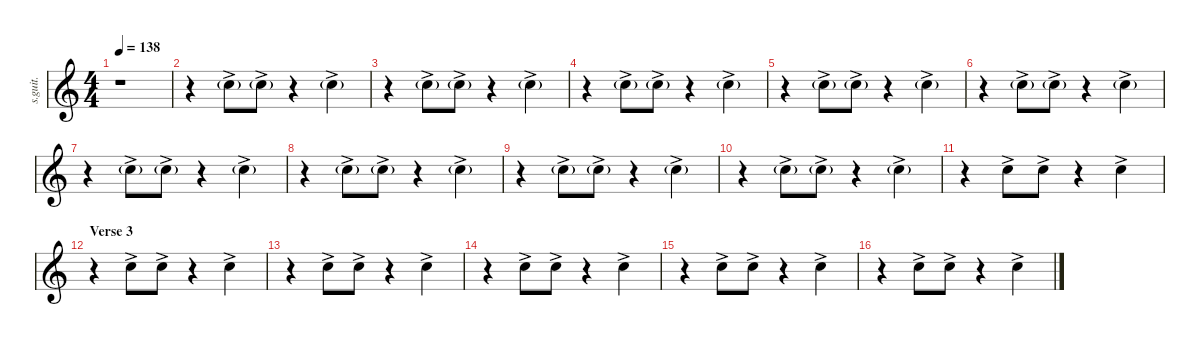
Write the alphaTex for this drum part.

\defaultSystemsLayout 4
\hideDynamics
\bracketExtendMode nobrackets
\track ("Hand Claps" "s.guit.") {instrument percussion}
\staff {score}
\articulation defaults
\ts (4 4)
\tempo 138
\clef g2
\ks c
r.1{dy fff} |
r.4 "Hand Clap (hit)"{g ac}.8 "Hand Clap (hit)"{g ac}.8 r.4 "Hand Clap (hit)"{g ac}.4 |
r.4 "Hand Clap (hit)"{g ac}.8 "Hand Clap (hit)"{g ac}.8 r.4 "Hand Clap (hit)"{g ac}.4 |
r.4 "Hand Clap (hit)"{g ac}.8 "Hand Clap (hit)"{g ac}.8 r.4 "Hand Clap (hit)"{g ac}.4 |
r.4 "Hand Clap (hit)"{g ac}.8 "Hand Clap (hit)"{g ac}.8 r.4 "Hand Clap (hit)"{g ac}.4 |
r.4 "Hand Clap (hit)"{g ac}.8 "Hand Clap (hit)"{g ac}.8 r.4 "Hand Clap (hit)"{g ac}.4 |
r.4 "Hand Clap (hit)"{g ac}.8 "Hand Clap (hit)"{g ac}.8 r.4 "Hand Clap (hit)"{g ac}.4 |
r.4 "Hand Clap (hit)"{g ac}.8 "Hand Clap (hit)"{g ac}.8 r.4 "Hand Clap (hit)"{g ac}.4 |
r.4 "Hand Clap (hit)"{g ac}.8 "Hand Clap (hit)"{g ac}.8 r.4 "Hand Clap (hit)"{g ac}.4 |
r.4 "Hand Clap (hit)"{g ac}.8 "Hand Clap (hit)"{g ac}.8 r.4 "Hand Clap (hit)"{g ac}.4 |
r.4 "Hand Clap (hit)"{ac}.8 "Hand Clap (hit)"{ac}.8 r.4 "Hand Clap (hit)"{ac}.4 |
\section ("" "Verse 3")
r.4 "Hand Clap (hit)"{ac}.8 "Hand Clap (hit)"{ac}.8 r.4 "Hand Clap (hit)"{ac}.4 |
r.4 "Hand Clap (hit)"{ac}.8 "Hand Clap (hit)"{ac}.8 r.4 "Hand Clap (hit)"{ac}.4 |
r.4 "Hand Clap (hit)"{ac}.8 "Hand Clap (hit)"{ac}.8 r.4 "Hand Clap (hit)"{ac}.4 |
r.4 "Hand Clap (hit)"{ac}.8 "Hand Clap (hit)"{ac}.8 r.4 "Hand Clap (hit)"{ac}.4 |
r.4 "Hand Clap (hit)"{ac}.8 "Hand Clap (hit)"{ac}.8 r.4 "Hand Clap (hit)"{ac}.4
